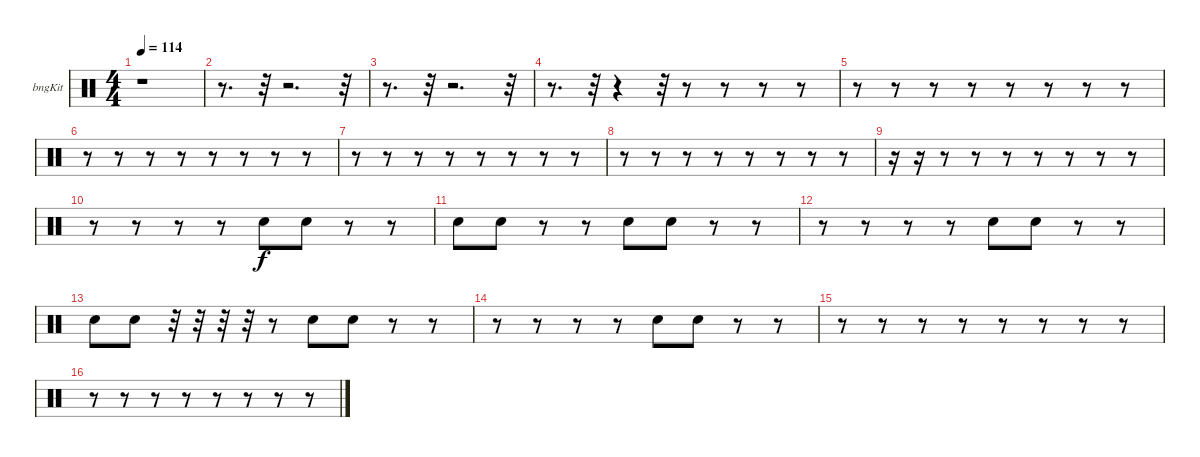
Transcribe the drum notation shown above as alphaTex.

\bracketExtendMode groupsimilarinstruments
\firstSystemTrackNameOrientation horizontal
\otherSystemsTrackNameOrientation horizontal
\track ("Bongos" "bngKit") {instrument percussion}
\staff {score}
\articulation defaults
\ts (4 4)
\tempo 114
\clef neutral
\ks c
r.1{dy f} |
r.8{d} r.32 r.2{d} r.32 |
r.8{d} r.32 r.2{d} r.32 |
r.8{d} r.32 r.4 r.32 r.8 r.8 r.8 r.8 |
r.8 r.8 r.8 r.8 r.8 r.8 r.8 r.8 |
r.8 r.8 r.8 r.8 r.8 r.8 r.8 r.8 |
r.8 r.8 r.8 r.8 r.8 r.8 r.8 r.8 |
r.8 r.8 r.8 r.8 r.8 r.8 r.8 r.8 |
r.16 r.16 r.8 r.8 r.8 r.8 r.8 r.8 r.8 |
r.8 r.8 r.8 r.8 "Snare (hit) 2".8 "Snare (hit) 2".8 r.8 r.8 |
"Snare (hit) 2".8 "Snare (hit) 2".8 r.8 r.8 "Snare (hit) 2".8 "Snare (hit) 2".8 r.8 r.8 |
r.8 r.8 r.8 r.8 "Snare (hit) 2".8 "Snare (hit) 2".8 r.8 r.8 |
"Snare (hit) 2".8 "Snare (hit) 2".8 r.32 r.32 r.32 r.32 r.8 "Snare (hit) 2".8 "Snare (hit) 2".8 r.8 r.8 |
r.8 r.8 r.8 r.8 "Snare (hit) 2".8 "Snare (hit) 2".8 r.8 r.8 |
r.8 r.8 r.8 r.8 r.8 r.8 r.8 r.8 |
r.8 r.8 r.8 r.8 r.8 r.8 r.8 r.8
